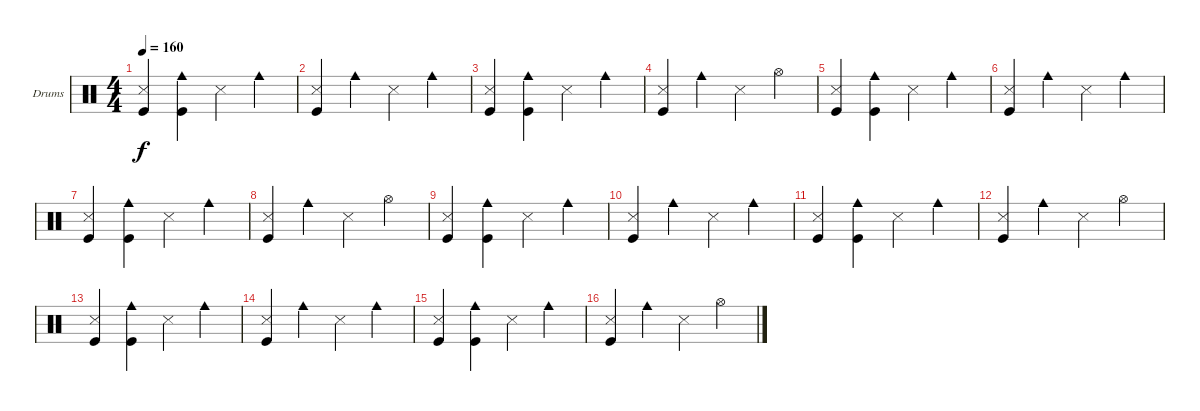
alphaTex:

\bracketExtendMode nobrackets
\firstSystemTrackNameOrientation horizontal
\otherSystemsTrackNameOrientation horizontal
\track ("Drumkit" "Drums") {instrument percussion}
\staff {score}
\articulation defaults
\ts (4 4)
\tempo 160
\clef neutral
\ks c
("Snare (side stick) 3" "Kick (hit)").4{dy f} ("Cowbell medium (hit)" "Kick (hit)").4 "Snare (side stick) 3".4 "Cowbell medium (hit)".4 |
("Snare (side stick) 3" "Kick (hit)").4 "Cowbell medium (hit)".4 "Snare (side stick) 3".4 "Cowbell medium (hit)".4 |
("Snare (side stick) 3" "Kick (hit)").4 ("Cowbell medium (hit)" "Kick (hit)").4 "Snare (side stick) 3".4 "Cowbell medium (hit)".4 |
("Snare (side stick) 3" "Kick (hit)").4 "Cowbell medium (hit)".4 "Snare (side stick) 3".4 "Hi-Hat (open)".4 |
("Snare (side stick) 3" "Kick (hit)").4 ("Cowbell medium (hit)" "Kick (hit)").4 "Snare (side stick) 3".4 "Cowbell medium (hit)".4 |
("Snare (side stick) 3" "Kick (hit)").4 "Cowbell medium (hit)".4 "Snare (side stick) 3".4 "Cowbell medium (hit)".4 |
("Snare (side stick) 3" "Kick (hit)").4 ("Cowbell medium (hit)" "Kick (hit)").4 "Snare (side stick) 3".4 "Cowbell medium (hit)".4 |
("Snare (side stick) 3" "Kick (hit)").4 "Cowbell medium (hit)".4 "Snare (side stick) 3".4 "Hi-Hat (open)".4 |
("Snare (side stick) 3" "Kick (hit)").4 ("Cowbell medium (hit)" "Kick (hit)").4 "Snare (side stick) 3".4 "Cowbell medium (hit)".4 |
("Snare (side stick) 3" "Kick (hit)").4 "Cowbell medium (hit)".4 "Snare (side stick) 3".4 "Cowbell medium (hit)".4 |
("Snare (side stick) 3" "Kick (hit)").4 ("Cowbell medium (hit)" "Kick (hit)").4 "Snare (side stick) 3".4 "Cowbell medium (hit)".4 |
("Snare (side stick) 3" "Kick (hit)").4 "Cowbell medium (hit)".4 "Snare (side stick) 3".4 "Hi-Hat (open)".4 |
("Snare (side stick) 3" "Kick (hit)").4 ("Cowbell medium (hit)" "Kick (hit)").4 "Snare (side stick) 3".4 "Cowbell medium (hit)".4 |
("Snare (side stick) 3" "Kick (hit)").4 "Cowbell medium (hit)".4 "Snare (side stick) 3".4 "Cowbell medium (hit)".4 |
("Snare (side stick) 3" "Kick (hit)").4 ("Cowbell medium (hit)" "Kick (hit)").4 "Snare (side stick) 3".4 "Cowbell medium (hit)".4 |
("Snare (side stick) 3" "Kick (hit)").4 "Cowbell medium (hit)".4 "Snare (side stick) 3".4 "Hi-Hat (open)".4
